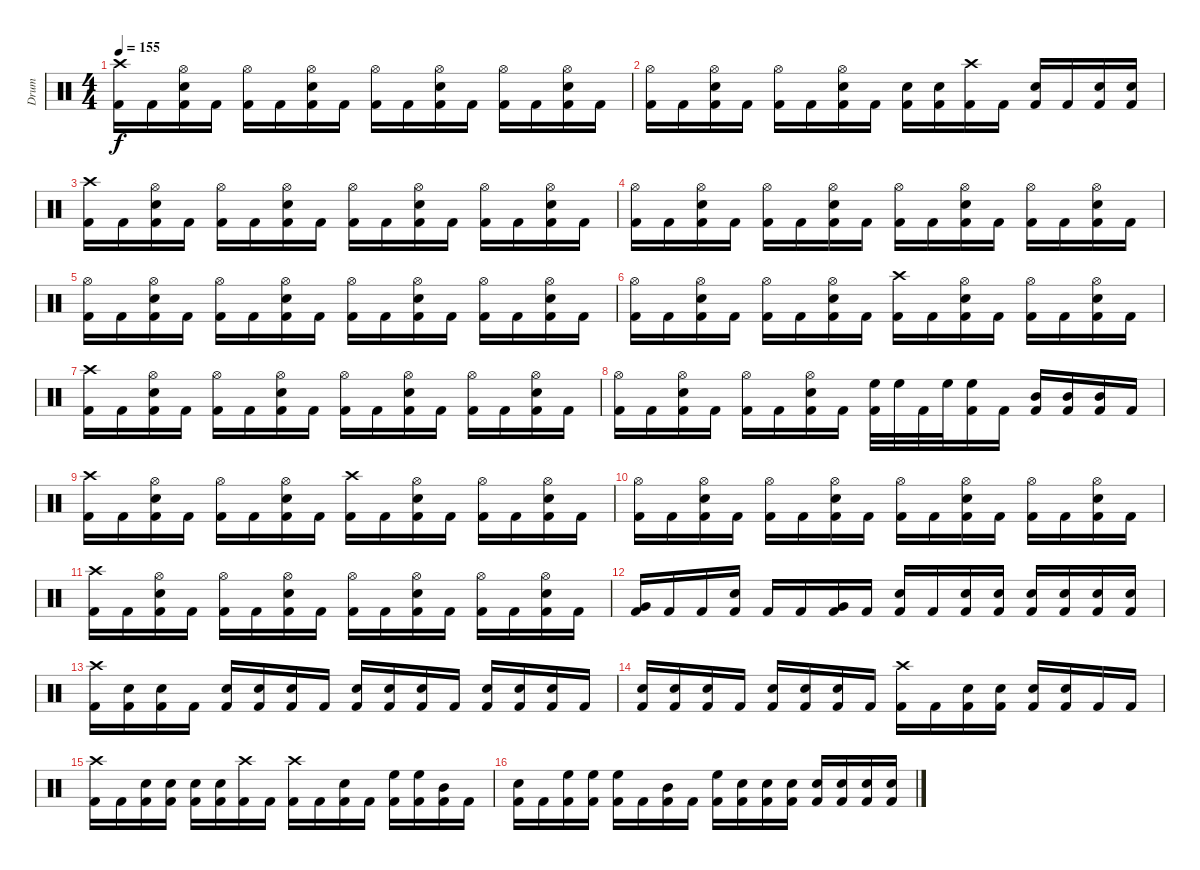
\track ("Drum" "Drum") {instrument percussion}
\staff {score}
\articulation defaults
\ts (4 4)
\tempo 155
\clef neutral
\ks c
("Kick (hit) 2" "Crash high (hit)").16{dy f} "Kick (hit) 2".16 ("Kick (hit) 2" "Hi-Hat (open)" "Snare (hit) 2").16 "Kick (hit) 2".16 ("Kick (hit) 2" "Hi-Hat (open)").16 "Kick (hit) 2".16 ("Kick (hit) 2" "Hi-Hat (open)" "Snare (hit) 2").16 "Kick (hit) 2".16 ("Kick (hit) 2" "Hi-Hat (open)").16 "Kick (hit) 2".16 ("Kick (hit) 2" "Hi-Hat (open)" "Snare (hit) 2").16 "Kick (hit) 2".16 ("Kick (hit) 2" "Hi-Hat (open)").16 "Kick (hit) 2".16 ("Kick (hit) 2" "Hi-Hat (open)" "Snare (hit) 2").16 "Kick (hit) 2".16 |
("Kick (hit) 2" "Hi-Hat (open)").16 "Kick (hit) 2".16 ("Kick (hit) 2" "Hi-Hat (open)" "Snare (hit) 2").16 "Kick (hit) 2".16 ("Kick (hit) 2" "Hi-Hat (open)").16 "Kick (hit) 2".16 ("Kick (hit) 2" "Hi-Hat (open)" "Snare (hit) 2").16 "Kick (hit) 2".16 ("Kick (hit) 2" "Snare (hit) 2").16 ("Kick (hit) 2" "Snare (hit) 2").16 ("Kick (hit) 2" "Crash high (hit)").16 "Kick (hit) 2".16 ("Kick (hit) 2" "Snare (hit) 2").16 "Kick (hit) 2".16 ("Kick (hit) 2" "Snare (hit) 2").16 ("Kick (hit) 2" "Snare (hit) 2").16 |
("Kick (hit) 2" "Crash high (hit)").16 "Kick (hit) 2".16 ("Kick (hit) 2" "Hi-Hat (open)" "Snare (hit) 2").16 "Kick (hit) 2".16 ("Kick (hit) 2" "Hi-Hat (open)").16 "Kick (hit) 2".16 ("Kick (hit) 2" "Hi-Hat (open)" "Snare (hit) 2").16 "Kick (hit) 2".16 ("Kick (hit) 2" "Hi-Hat (open)").16 "Kick (hit) 2".16 ("Kick (hit) 2" "Hi-Hat (open)" "Snare (hit) 2").16 "Kick (hit) 2".16 ("Kick (hit) 2" "Hi-Hat (open)").16 "Kick (hit) 2".16 ("Kick (hit) 2" "Hi-Hat (open)" "Snare (hit) 2").16 "Kick (hit) 2".16 |
("Kick (hit) 2" "Hi-Hat (open)").16 "Kick (hit) 2".16 ("Kick (hit) 2" "Hi-Hat (open)" "Snare (hit) 2").16 "Kick (hit) 2".16 ("Kick (hit) 2" "Hi-Hat (open)").16 "Kick (hit) 2".16 ("Kick (hit) 2" "Hi-Hat (open)" "Snare (hit) 2").16 "Kick (hit) 2".16 ("Kick (hit) 2" "Hi-Hat (open)").16 "Kick (hit) 2".16 ("Kick (hit) 2" "Hi-Hat (open)" "Snare (hit) 2").16 "Kick (hit) 2".16 ("Kick (hit) 2" "Hi-Hat (open)").16 "Kick (hit) 2".16 ("Kick (hit) 2" "Hi-Hat (open)" "Snare (hit) 2").16 "Kick (hit) 2".16 |
("Kick (hit) 2" "Hi-Hat (open)").16 "Kick (hit) 2".16 ("Kick (hit) 2" "Hi-Hat (open)" "Snare (hit) 2").16 "Kick (hit) 2".16 ("Kick (hit) 2" "Hi-Hat (open)").16 "Kick (hit) 2".16 ("Kick (hit) 2" "Hi-Hat (open)" "Snare (hit) 2").16 "Kick (hit) 2".16 ("Kick (hit) 2" "Hi-Hat (open)").16 "Kick (hit) 2".16 ("Kick (hit) 2" "Hi-Hat (open)" "Snare (hit) 2").16 "Kick (hit) 2".16 ("Kick (hit) 2" "Hi-Hat (open)").16 "Kick (hit) 2".16 ("Kick (hit) 2" "Hi-Hat (open)" "Snare (hit) 2").16 "Kick (hit) 2".16 |
("Kick (hit) 2" "Hi-Hat (open)").16 "Kick (hit) 2".16 ("Kick (hit) 2" "Hi-Hat (open)" "Snare (hit) 2").16 "Kick (hit) 2".16 ("Kick (hit) 2" "Hi-Hat (open)").16 "Kick (hit) 2".16 ("Kick (hit) 2" "Hi-Hat (open)" "Snare (hit) 2").16 "Kick (hit) 2".16 ("Kick (hit) 2" "Crash high (hit)").16 "Kick (hit) 2".16 ("Kick (hit) 2" "Hi-Hat (open)" "Snare (hit) 2").16 "Kick (hit) 2".16 ("Kick (hit) 2" "Hi-Hat (open)").16 "Kick (hit) 2".16 ("Kick (hit) 2" "Hi-Hat (open)" "Snare (hit) 2").16 "Kick (hit) 2".16 |
("Kick (hit) 2" "Crash high (hit)").16 "Kick (hit) 2".16 ("Kick (hit) 2" "Hi-Hat (open)" "Snare (hit) 2").16 "Kick (hit) 2".16 ("Kick (hit) 2" "Hi-Hat (open)").16 "Kick (hit) 2".16 ("Kick (hit) 2" "Hi-Hat (open)" "Snare (hit) 2").16 "Kick (hit) 2".16 ("Kick (hit) 2" "Hi-Hat (open)").16 "Kick (hit) 2".16 ("Kick (hit) 2" "Hi-Hat (open)" "Snare (hit) 2").16 "Kick (hit) 2".16 ("Kick (hit) 2" "Hi-Hat (open)").16 "Kick (hit) 2".16 ("Kick (hit) 2" "Hi-Hat (open)" "Snare (hit) 2").16 "Kick (hit) 2".16 |
("Kick (hit) 2" "Hi-Hat (open)").16 "Kick (hit) 2".16 ("Kick (hit) 2" "Hi-Hat (open)" "Snare (hit) 2").16 "Kick (hit) 2".16 ("Kick (hit) 2" "Hi-Hat (open)").16 "Kick (hit) 2".16 ("Kick (hit) 2" "Hi-Hat (open)" "Snare (hit) 2").16 "Kick (hit) 2".16 ("Kick (hit) 2" "High Floor Tom (hit)").32 "High Floor Tom (hit)".32 "Kick (hit) 2".32 "High Floor Tom (hit)".32 ("Kick (hit) 2" "High Floor Tom (hit)").16 "Kick (hit) 2".16 ("Kick (hit) 2" "Mid Tom (hit)").16 ("Kick (hit) 2" "Mid Tom (hit)").16 ("Kick (hit) 2" "Mid Tom (hit)").16 "Kick (hit) 2".16 |
("Kick (hit) 2" "Crash high (hit)").16 "Kick (hit) 2".16 ("Kick (hit) 2" "Hi-Hat (open)" "Snare (hit) 2").16 "Kick (hit) 2".16 ("Kick (hit) 2" "Hi-Hat (open)").16 "Kick (hit) 2".16 ("Kick (hit) 2" "Hi-Hat (open)" "Snare (hit) 2").16 "Kick (hit) 2".16 ("Kick (hit) 2" "Crash high (hit)").16 "Kick (hit) 2".16 ("Kick (hit) 2" "Hi-Hat (open)" "Snare (hit) 2").16 "Kick (hit) 2".16 ("Kick (hit) 2" "Hi-Hat (open)").16 "Kick (hit) 2".16 ("Kick (hit) 2" "Hi-Hat (open)" "Snare (hit) 2").16 "Kick (hit) 2".16 |
("Kick (hit) 2" "Hi-Hat (open)").16 "Kick (hit) 2".16 ("Kick (hit) 2" "Hi-Hat (open)" "Snare (hit) 2").16 "Kick (hit) 2".16 ("Kick (hit) 2" "Hi-Hat (open)").16 "Kick (hit) 2".16 ("Kick (hit) 2" "Hi-Hat (open)" "Snare (hit) 2").16 "Kick (hit) 2".16 ("Kick (hit) 2" "Hi-Hat (open)").16 "Kick (hit) 2".16 ("Kick (hit) 2" "Hi-Hat (open)" "Snare (hit) 2").16 "Kick (hit) 2".16 ("Kick (hit) 2" "Hi-Hat (open)").16 "Kick (hit) 2".16 ("Kick (hit) 2" "Hi-Hat (open)" "Snare (hit) 2").16 "Kick (hit) 2".16 |
("Kick (hit) 2" "Crash high (hit)").16 "Kick (hit) 2".16 ("Kick (hit) 2" "Hi-Hat (open)" "Snare (hit) 2").16 "Kick (hit) 2".16 ("Kick (hit) 2" "Hi-Hat (open)").16 "Kick (hit) 2".16 ("Kick (hit) 2" "Hi-Hat (open)" "Snare (hit) 2").16 "Kick (hit) 2".16 ("Kick (hit) 2" "Hi-Hat (open)").16 "Kick (hit) 2".16 ("Kick (hit) 2" "Hi-Hat (open)" "Snare (hit) 2").16 "Kick (hit) 2".16 ("Kick (hit) 2" "Hi-Hat (open)").16 "Kick (hit) 2".16 ("Kick (hit) 2" "Hi-Hat (open)" "Snare (hit) 2").16 "Kick (hit) 2".16 |
("Kick (hit) 2" "Very Low Tom (hit)").16 "Kick (hit) 2".16 "Kick (hit) 2".16 ("Kick (hit) 2" "Snare (hit) 2").16 "Kick (hit) 2".16 "Kick (hit) 2".16 ("Kick (hit) 2" "Very Low Tom (hit)").16 "Kick (hit) 2".16 ("Kick (hit) 2" "Snare (hit) 2").16 "Kick (hit) 2".16 ("Kick (hit) 2" "Snare (hit) 2").16 ("Kick (hit) 2" "Snare (hit) 2").16 ("Kick (hit) 2" "Snare (hit) 2").16 ("Kick (hit) 2" "Snare (hit) 2").16 ("Kick (hit) 2" "Snare (hit) 2").16 ("Kick (hit) 2" "Snare (hit) 2").16 |
("Kick (hit) 2" "Crash high (hit)").16 ("Kick (hit) 2" "Snare (hit) 2").16 ("Kick (hit) 2" "Snare (hit) 2").16 "Kick (hit) 2".16 ("Kick (hit) 2" "Snare (hit) 2").16 ("Kick (hit) 2" "Snare (hit) 2").16 ("Kick (hit) 2" "Snare (hit) 2").16 "Kick (hit) 2".16 ("Kick (hit) 2" "Snare (hit) 2").16 ("Kick (hit) 2" "Snare (hit) 2").16 ("Kick (hit) 2" "Snare (hit) 2").16 "Kick (hit) 2".16 ("Kick (hit) 2" "Snare (hit) 2").16 ("Kick (hit) 2" "Snare (hit) 2").16 ("Kick (hit) 2" "Snare (hit) 2").16 "Kick (hit) 2".16 |
("Kick (hit) 2" "Snare (hit) 2").16 ("Kick (hit) 2" "Snare (hit) 2").16 ("Kick (hit) 2" "Snare (hit) 2").16 "Kick (hit) 2".16 ("Kick (hit) 2" "Snare (hit) 2").16 ("Kick (hit) 2" "Snare (hit) 2").16 ("Kick (hit) 2" "Snare (hit) 2").16 "Kick (hit) 2".16 ("Kick (hit) 2" "Crash high (hit)").16 "Kick (hit) 2".16 ("Kick (hit) 2" "Snare (hit) 2").16 ("Kick (hit) 2" "Snare (hit) 2").16 ("Kick (hit) 2" "Snare (hit) 2").16 ("Kick (hit) 2" "Snare (hit) 2").16 "Kick (hit) 2".16 "Kick (hit) 2".16 |
("Kick (hit) 2" "Crash high (hit)").16 "Kick (hit) 2".16 ("Kick (hit) 2" "Snare (hit) 2").16 ("Kick (hit) 2" "Snare (hit) 2").16 ("Kick (hit) 2" "Snare (hit) 2").16 ("Kick (hit) 2" "Snare (hit) 2").16 ("Kick (hit) 2" "Crash high (hit)").16 "Kick (hit) 2".16 ("Crash high (hit)" "Kick (hit) 2").16 "Kick (hit) 2".16 ("Snare (hit) 2" "Kick (hit) 2").16 "Kick (hit) 2".16 ("High Floor Tom (hit)" "Kick (hit) 2").16 ("High Floor Tom (hit)" "Kick (hit) 2").16 ("Mid Tom (hit)" "Kick (hit) 2").16 "Kick (hit) 2".16 |
("Kick (hit) 2" "Snare (hit) 2").16 "Kick (hit) 2".16 ("Kick (hit) 2" "High Floor Tom (hit)").16 ("Kick (hit) 2" "High Floor Tom (hit)").16 ("Kick (hit) 2" "High Floor Tom (hit)").16 "Kick (hit) 2".16 ("Kick (hit) 2" "Mid Tom (hit)").16 "Kick (hit) 2".16 ("Kick (hit) 2" "High Floor Tom (hit)").16 ("Kick (hit) 2" "Snare (hit) 2").16 ("Kick (hit) 2" "Snare (hit) 2").16 ("Kick (hit) 2" "Snare (hit) 2").16 ("Kick (hit) 2" "Snare (hit) 2").16 ("Kick (hit) 2" "Snare (hit) 2").16 ("Kick (hit) 2" "Snare (hit) 2").16 ("Kick (hit) 2" "Snare (hit) 2").16
